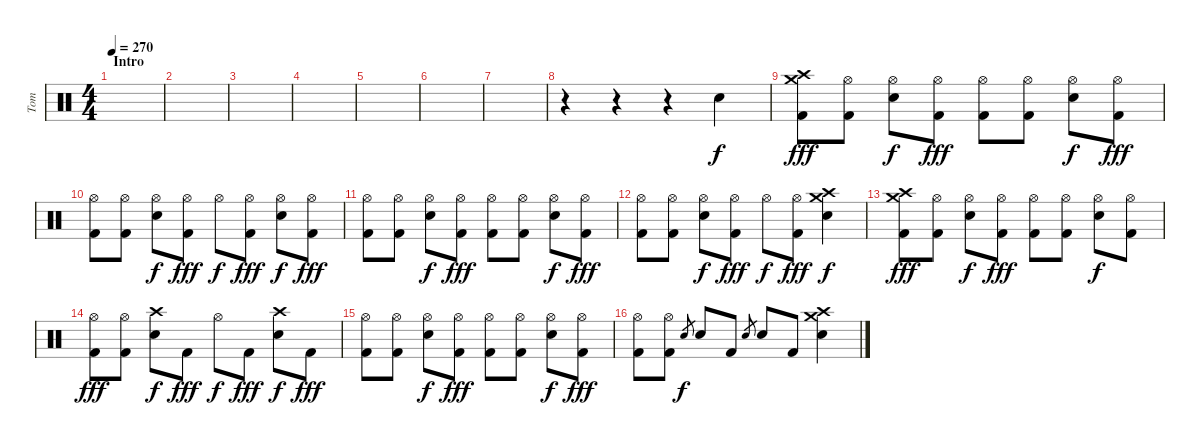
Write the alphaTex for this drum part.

\track ("Tom" "Tom") {instrument percussion}
\staff {score}
\articulation defaults
\ts (4 4)
\section ("" "Intro")
\tempo 270
\clef neutral
\ks c
|
|
|
|
|
|
|
r.4 r.4 r.4 "Electric Snare (hit)".4 |
("Kick (hit) 2" "Crash medium (hit)" "Crash high (hit)").8{dy fff} ("Kick (hit) 2" "Hi-Hat (open)").8 ("Electric Snare (hit)" "Hi-Hat (open)").8{dy f} ("Kick (hit) 2" "Hi-Hat (open)").8{dy fff} ("Kick (hit) 2" "Hi-Hat (open)").8 ("Kick (hit) 2" "Hi-Hat (open)").8 ("Electric Snare (hit)" "Hi-Hat (open)").8{dy f} ("Kick (hit) 2" "Hi-Hat (open)").8{dy fff} |
("Kick (hit) 2" "Hi-Hat (open)").8 ("Kick (hit) 2" "Hi-Hat (open)").8 ("Electric Snare (hit)" "Hi-Hat (open)").8{dy f} ("Kick (hit) 2" "Hi-Hat (open)").8{dy fff} "Hi-Hat (open)".8{dy f} ("Kick (hit) 2" "Hi-Hat (open)").8{dy fff} ("Electric Snare (hit)" "Hi-Hat (open)").8{dy f} ("Kick (hit) 2" "Hi-Hat (open)").8{dy fff} |
("Kick (hit) 2" "Hi-Hat (open)").8 ("Kick (hit) 2" "Hi-Hat (open)").8 ("Electric Snare (hit)" "Hi-Hat (open)").8{dy f} ("Kick (hit) 2" "Hi-Hat (open)").8{dy fff} ("Kick (hit) 2" "Hi-Hat (open)").8 ("Kick (hit) 2" "Hi-Hat (open)").8 ("Electric Snare (hit)" "Hi-Hat (open)").8{dy f} ("Kick (hit) 2" "Hi-Hat (open)").8{dy fff} |
("Kick (hit) 2" "Hi-Hat (open)").8 ("Kick (hit) 2" "Hi-Hat (open)").8 ("Electric Snare (hit)" "Hi-Hat (open)").8{dy f} ("Kick (hit) 2" "Hi-Hat (open)").8{dy fff} "Hi-Hat (open)".8{dy f} ("Kick (hit) 2" "Hi-Hat (open)").8{dy fff} ("Electric Snare (hit)" "Crash medium (hit)" "Crash high (hit)").4{dy f} |
("Kick (hit) 2" "Crash medium (hit)" "Crash high (hit)").8{dy fff} ("Kick (hit) 2" "Hi-Hat (open)").8 ("Electric Snare (hit)" "Hi-Hat (open)").8{dy f} ("Kick (hit) 2" "Hi-Hat (open)").8{dy fff} ("Kick (hit) 2" "Hi-Hat (open)").8 ("Kick (hit) 2" "Hi-Hat (open)").8 ("Electric Snare (hit)" "Hi-Hat (open)").8{dy f} ("Kick (hit) 2" "Hi-Hat (open)").8 |
("Kick (hit) 2" "Hi-Hat (open)").8{dy fff} ("Kick (hit) 2" "Hi-Hat (open)").8 ("Electric Snare (hit)" "Crash high (hit)").8{dy f} "Kick (hit) 2".8{dy fff} "Hi-Hat (open)".8{dy f} "Kick (hit) 2".8{dy fff} ("Electric Snare (hit)" "Crash high (hit)").8{dy f} "Kick (hit) 2".8{dy fff} |
("Kick (hit) 2" "Hi-Hat (open)").8 ("Kick (hit) 2" "Hi-Hat (open)").8 ("Electric Snare (hit)" "Hi-Hat (open)").8{dy f} ("Kick (hit) 2" "Hi-Hat (open)").8{dy fff} ("Kick (hit) 2" "Hi-Hat (open)").8 ("Kick (hit) 2" "Hi-Hat (open)").8 ("Electric Snare (hit)" "Hi-Hat (open)").8{dy f} ("Kick (hit) 2" "Hi-Hat (open)").8{dy fff} |
("Kick (hit) 2" "Hi-Hat (open)").8 ("Kick (hit) 2" "Hi-Hat (open)").8 "Electric Snare (hit)".8{gr dy f} "Electric Snare (hit)".8 "Kick (hit) 2".8 "Electric Snare (hit)".8{gr} "Electric Snare (hit)".8 "Kick (hit) 2".8 ("Electric Snare (hit)" "Crash high (hit)" "Crash medium (hit)").4
